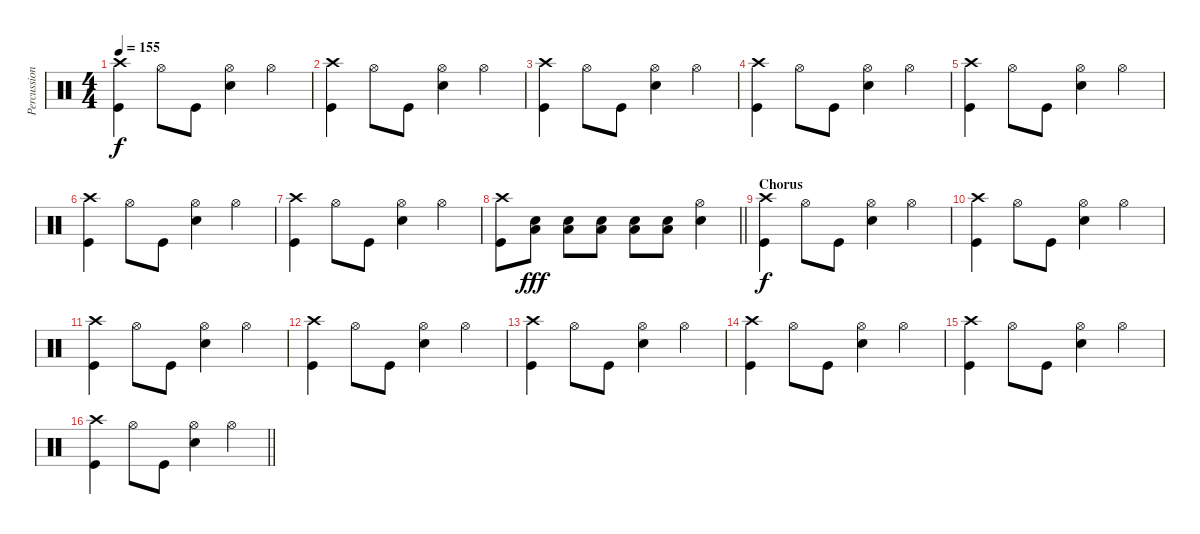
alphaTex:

\track ("Percussion" "Percussion") {instrument percussion}
\staff {score}
\articulation defaults
\ts (4 4)
\tempo 155
\clef neutral
\ks c
("Crash high (hit)" "Kick (hit)").4{dy f} "Hi-Hat (open)".8 "Kick (hit)".8 ("Hi-Hat (open)" "Electric Snare (hit)").4 "Hi-Hat (open)".4 |
("Crash high (hit)" "Kick (hit)").4 "Hi-Hat (open)".8 "Kick (hit)".8 ("Hi-Hat (open)" "Electric Snare (hit)").4 "Hi-Hat (open)".4 |
("Crash high (hit)" "Kick (hit)").4 "Hi-Hat (open)".8 "Kick (hit)".8 ("Hi-Hat (open)" "Electric Snare (hit)").4 "Hi-Hat (open)".4 |
("Crash high (hit)" "Kick (hit)").4 "Hi-Hat (open)".8 "Kick (hit)".8 ("Hi-Hat (open)" "Electric Snare (hit)").4 "Hi-Hat (open)".4 |
("Crash high (hit)" "Kick (hit)").4 "Hi-Hat (open)".8 "Kick (hit)".8 ("Hi-Hat (open)" "Electric Snare (hit)").4 "Hi-Hat (open)".4 |
("Crash high (hit)" "Kick (hit)").4 "Hi-Hat (open)".8 "Kick (hit)".8 ("Hi-Hat (open)" "Electric Snare (hit)").4 "Hi-Hat (open)".4 |
("Crash high (hit)" "Kick (hit)").4 "Hi-Hat (open)".8 "Kick (hit)".8 ("Hi-Hat (open)" "Electric Snare (hit)").4 "Hi-Hat (open)".4 |
\barLineRight lightlight
("Crash high (hit)" "Kick (hit)").8 ("Low Floor Tom (hit)" "Electric Snare (hit)").8{dy fff} ("Low Floor Tom (hit)" "Electric Snare (hit)").8 ("Low Floor Tom (hit)" "Electric Snare (hit)").8 ("Low Floor Tom (hit)" "Electric Snare (hit)").8 ("Low Floor Tom (hit)" "Electric Snare (hit)").8 ("Hi-Hat (open)" "Electric Snare (hit)").4 |
\section ("" "Chorus")
("Crash high (hit)" "Kick (hit)").4{dy f} "Hi-Hat (open)".8 "Kick (hit)".8 ("Hi-Hat (open)" "Electric Snare (hit)").4 "Hi-Hat (open)".4 |
("Crash high (hit)" "Kick (hit)").4 "Hi-Hat (open)".8 "Kick (hit)".8 ("Hi-Hat (open)" "Electric Snare (hit)").4 "Hi-Hat (open)".4 |
("Crash high (hit)" "Kick (hit)").4 "Hi-Hat (open)".8 "Kick (hit)".8 ("Hi-Hat (open)" "Electric Snare (hit)").4 "Hi-Hat (open)".4 |
("Crash high (hit)" "Kick (hit)").4 "Hi-Hat (open)".8 "Kick (hit)".8 ("Hi-Hat (open)" "Electric Snare (hit)").4 "Hi-Hat (open)".4 |
("Crash high (hit)" "Kick (hit)").4 "Hi-Hat (open)".8 "Kick (hit)".8 ("Hi-Hat (open)" "Electric Snare (hit)").4 "Hi-Hat (open)".4 |
("Crash high (hit)" "Kick (hit)").4 "Hi-Hat (open)".8 "Kick (hit)".8 ("Hi-Hat (open)" "Electric Snare (hit)").4 "Hi-Hat (open)".4 |
("Crash high (hit)" "Kick (hit)").4 "Hi-Hat (open)".8 "Kick (hit)".8 ("Hi-Hat (open)" "Electric Snare (hit)").4 "Hi-Hat (open)".4 |
\barLineRight lightlight
("Crash high (hit)" "Kick (hit)").4 "Hi-Hat (open)".8 "Kick (hit)".8 ("Hi-Hat (open)" "Electric Snare (hit)").4 "Hi-Hat (open)".4
